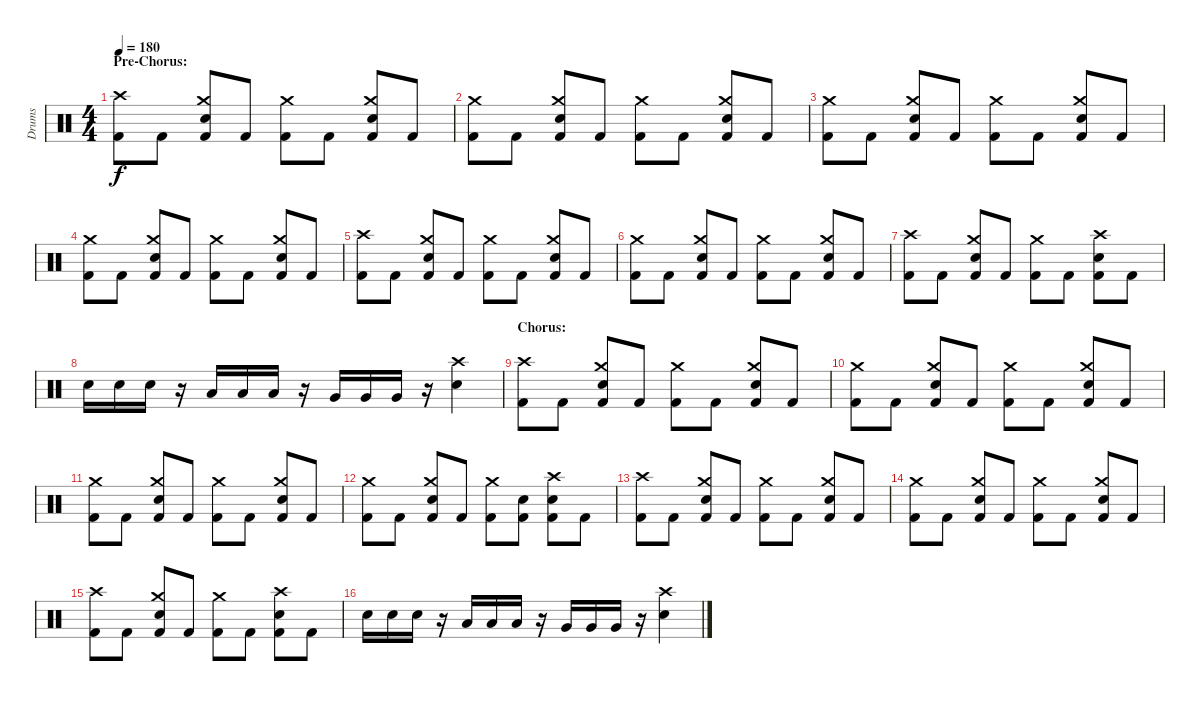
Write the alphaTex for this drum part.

\track ("Drums" "Drums") {instrument percussion}
\staff {score}
\articulation defaults
\ts (4 4)
\section ("" "Pre-Chorus:")
\tempo 180
\clef neutral
\ks c
("Crash high (hit)" "Kick (hit) 2").8{dy f} "Kick (hit) 2".8 ("Crash medium (hit)" "Electric Snare (hit)" "Kick (hit) 2").8 "Kick (hit) 2".8 ("Crash medium (hit)" "Kick (hit) 2").8 "Kick (hit) 2".8 ("Crash medium (hit)" "Electric Snare (hit)" "Kick (hit) 2").8 "Kick (hit) 2".8 |
("Crash medium (hit)" "Kick (hit) 2").8 "Kick (hit) 2".8 ("Crash medium (hit)" "Electric Snare (hit)" "Kick (hit) 2").8 "Kick (hit) 2".8 ("Crash medium (hit)" "Kick (hit) 2").8 "Kick (hit) 2".8 ("Crash medium (hit)" "Electric Snare (hit)" "Kick (hit) 2").8 "Kick (hit) 2".8 |
("Crash medium (hit)" "Kick (hit) 2").8 "Kick (hit) 2".8 ("Crash medium (hit)" "Electric Snare (hit)" "Kick (hit) 2").8 "Kick (hit) 2".8 ("Crash medium (hit)" "Kick (hit) 2").8 "Kick (hit) 2".8 ("Crash medium (hit)" "Electric Snare (hit)" "Kick (hit) 2").8 "Kick (hit) 2".8 |
("Crash medium (hit)" "Kick (hit) 2").8 "Kick (hit) 2".8 ("Crash medium (hit)" "Electric Snare (hit)" "Kick (hit) 2").8 "Kick (hit) 2".8 ("Crash medium (hit)" "Kick (hit) 2").8 "Kick (hit) 2".8 ("Crash medium (hit)" "Electric Snare (hit)" "Kick (hit) 2").8 "Kick (hit) 2".8 |
("Crash high (hit)" "Kick (hit) 2").8 "Kick (hit) 2".8 ("Crash medium (hit)" "Electric Snare (hit)" "Kick (hit) 2").8 "Kick (hit) 2".8 ("Crash medium (hit)" "Kick (hit) 2").8 "Kick (hit) 2".8 ("Crash medium (hit)" "Electric Snare (hit)" "Kick (hit) 2").8 "Kick (hit) 2".8 |
("Crash medium (hit)" "Kick (hit) 2").8 "Kick (hit) 2".8 ("Crash medium (hit)" "Electric Snare (hit)" "Kick (hit) 2").8 "Kick (hit) 2".8 ("Crash medium (hit)" "Kick (hit) 2").8 "Kick (hit) 2".8 ("Crash medium (hit)" "Electric Snare (hit)" "Kick (hit) 2").8 "Kick (hit) 2".8 |
("Crash high (hit)" "Kick (hit) 2").8 "Kick (hit) 2".8 ("Crash medium (hit)" "Electric Snare (hit)" "Kick (hit) 2").8 "Kick (hit) 2".8 ("Crash medium (hit)" "Kick (hit) 2").8 "Kick (hit) 2".8 ("Crash high (hit)" "Electric Snare (hit)" "Kick (hit) 2").8 "Kick (hit) 2".8 |
"Electric Snare (hit)".16 "Electric Snare (hit)".16 "Electric Snare (hit)".16 r.16 "Low Tom (hit)".16 "Low Tom (hit)".16 "Low Tom (hit)".16 r.16 "Very Low Tom (hit)".16 "Very Low Tom (hit)".16 "Very Low Tom (hit)".16 r.16 ("Crash high (hit)" "Electric Snare (hit)").4 |
\section ("" "Chorus:")
("Crash high (hit)" "Kick (hit) 2").8 "Kick (hit) 2".8 ("Crash medium (hit)" "Electric Snare (hit)" "Kick (hit) 2").8 "Kick (hit) 2".8 ("Crash medium (hit)" "Kick (hit) 2").8 "Kick (hit) 2".8 ("Crash medium (hit)" "Electric Snare (hit)" "Kick (hit) 2").8 "Kick (hit) 2".8 |
("Crash medium (hit)" "Kick (hit) 2").8 "Kick (hit) 2".8 ("Crash medium (hit)" "Electric Snare (hit)" "Kick (hit) 2").8 "Kick (hit) 2".8 ("Crash medium (hit)" "Kick (hit) 2").8 "Kick (hit) 2".8 ("Crash medium (hit)" "Electric Snare (hit)" "Kick (hit) 2").8 "Kick (hit) 2".8 |
("Crash medium (hit)" "Kick (hit) 2").8 "Kick (hit) 2".8 ("Crash medium (hit)" "Electric Snare (hit)" "Kick (hit) 2").8 "Kick (hit) 2".8 ("Crash medium (hit)" "Kick (hit) 2").8 "Kick (hit) 2".8 ("Crash medium (hit)" "Electric Snare (hit)" "Kick (hit) 2").8 "Kick (hit) 2".8 |
("Crash medium (hit)" "Kick (hit) 2").8 "Kick (hit) 2".8 ("Crash medium (hit)" "Electric Snare (hit)" "Kick (hit) 2").8 "Kick (hit) 2".8 ("Crash medium (hit)" "Kick (hit) 2").8 ("Electric Snare (hit)" "Kick (hit) 2").8 ("Crash high (hit)" "Electric Snare (hit)" "Kick (hit) 2").8 "Kick (hit) 2".8 |
("Crash high (hit)" "Kick (hit) 2").8 "Kick (hit) 2".8 ("Crash medium (hit)" "Electric Snare (hit)" "Kick (hit) 2").8 "Kick (hit) 2".8 ("Crash medium (hit)" "Kick (hit) 2").8 "Kick (hit) 2".8 ("Crash medium (hit)" "Electric Snare (hit)" "Kick (hit) 2").8 "Kick (hit) 2".8 |
("Crash medium (hit)" "Kick (hit) 2").8 "Kick (hit) 2".8 ("Crash medium (hit)" "Electric Snare (hit)" "Kick (hit) 2").8 "Kick (hit) 2".8 ("Crash medium (hit)" "Kick (hit) 2").8 "Kick (hit) 2".8 ("Crash medium (hit)" "Electric Snare (hit)" "Kick (hit) 2").8 "Kick (hit) 2".8 |
("Crash high (hit)" "Kick (hit) 2").8 "Kick (hit) 2".8 ("Crash medium (hit)" "Electric Snare (hit)" "Kick (hit) 2").8 "Kick (hit) 2".8 ("Crash medium (hit)" "Kick (hit) 2").8 "Kick (hit) 2".8 ("Crash high (hit)" "Electric Snare (hit)" "Kick (hit) 2").8 "Kick (hit) 2".8 |
"Electric Snare (hit)".16 "Electric Snare (hit)".16 "Electric Snare (hit)".16 r.16 "Low Tom (hit)".16 "Low Tom (hit)".16 "Low Tom (hit)".16 r.16 "Very Low Tom (hit)".16 "Very Low Tom (hit)".16 "Very Low Tom (hit)".16 r.16 ("Crash high (hit)" "Electric Snare (hit)").4
